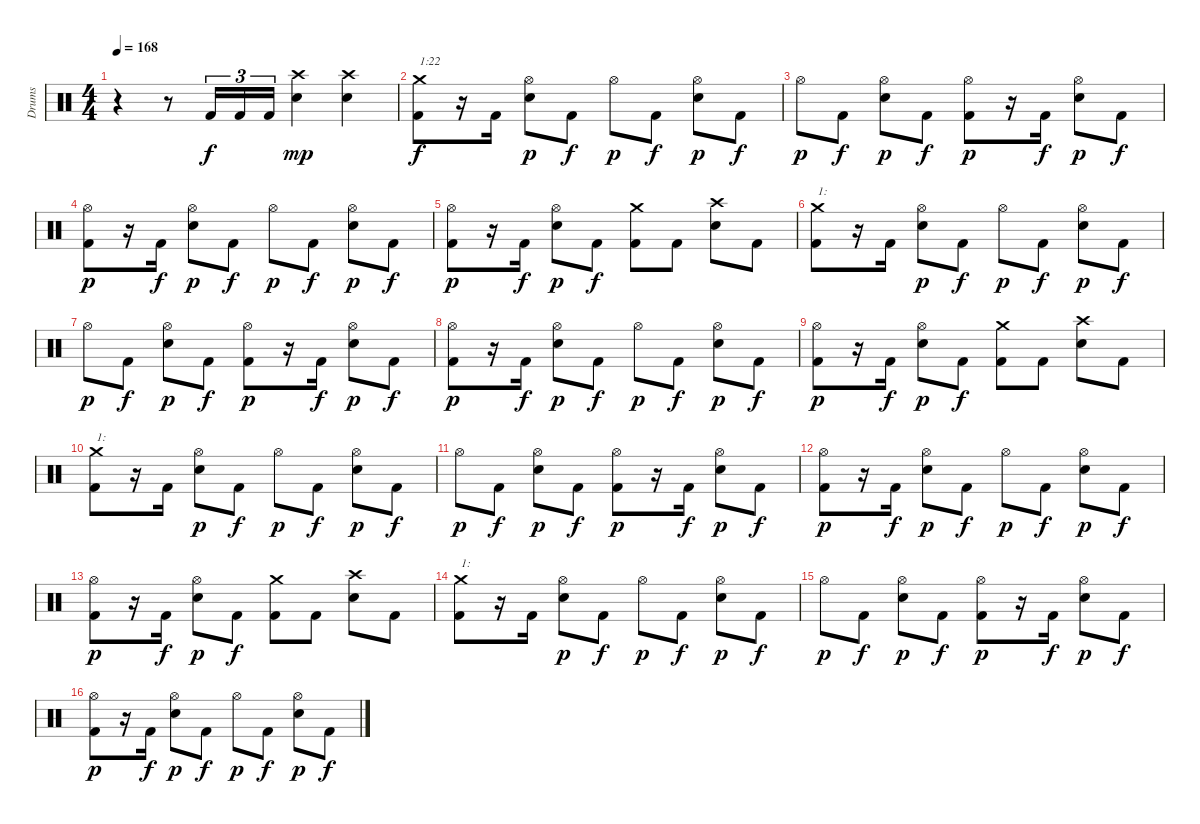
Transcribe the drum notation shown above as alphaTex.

\track ("Drums" "Drums") {instrument percussion}
\staff {score}
\articulation defaults
\ts (4 4)
\tempo 168
\clef neutral
\ks c
r.4{dy f} r.8 "Kick (hit) 2".16{tu (3 2)} "Kick (hit) 2".16{tu (3 2)} "Kick (hit) 2".16{tu (3 2)} ("Electric Snare (hit)" "Crash high (hit)").4{dy mp} ("Electric Snare (hit)" "Crash high (hit)").4 |
("Kick (hit) 2" "Crash medium (hit)").8{txt "1:22" dy f} r.16 "Kick (hit) 2".16 ("Electric Snare (hit)" "Hi-Hat (open)").8{dy p} "Kick (hit) 2".8{dy f} "Hi-Hat (open)".8{dy p} "Kick (hit) 2".8{dy f} ("Electric Snare (hit)" "Hi-Hat (open)").8{dy p} "Kick (hit) 2".8{dy f} |
"Hi-Hat (open)".8{dy p} "Kick (hit) 2".8{dy f} ("Electric Snare (hit)" "Hi-Hat (open)").8{dy p} "Kick (hit) 2".8{dy f} ("Kick (hit) 2" "Hi-Hat (open)").8{dy p} r.16 "Kick (hit) 2".16{dy f} ("Electric Snare (hit)" "Hi-Hat (open)").8{dy p} "Kick (hit) 2".8{dy f} |
("Kick (hit) 2" "Hi-Hat (open)").8{dy p} r.16 "Kick (hit) 2".16{dy f} ("Electric Snare (hit)" "Hi-Hat (open)").8{dy p} "Kick (hit) 2".8{dy f} "Hi-Hat (open)".8{dy p} "Kick (hit) 2".8{dy f} ("Electric Snare (hit)" "Hi-Hat (open)").8{dy p} "Kick (hit) 2".8{dy f} |
("Kick (hit) 2" "Hi-Hat (open)").8{dy p} r.16 "Kick (hit) 2".16{dy f} ("Electric Snare (hit)" "Hi-Hat (open)").8{dy p} "Kick (hit) 2".8{dy f} ("Kick (hit) 2" "Crash medium (hit)").8 "Kick (hit) 2".8 ("Electric Snare (hit)" "Crash high (hit)").8 "Kick (hit) 2".8 |
("Kick (hit) 2" "Crash medium (hit)").8{txt "1:"} r.16 "Kick (hit) 2".16 ("Electric Snare (hit)" "Hi-Hat (open)").8{dy p} "Kick (hit) 2".8{dy f} "Hi-Hat (open)".8{dy p} "Kick (hit) 2".8{dy f} ("Electric Snare (hit)" "Hi-Hat (open)").8{dy p} "Kick (hit) 2".8{dy f} |
"Hi-Hat (open)".8{dy p} "Kick (hit) 2".8{dy f} ("Electric Snare (hit)" "Hi-Hat (open)").8{dy p} "Kick (hit) 2".8{dy f} ("Kick (hit) 2" "Hi-Hat (open)").8{dy p} r.16 "Kick (hit) 2".16{dy f} ("Electric Snare (hit)" "Hi-Hat (open)").8{dy p} "Kick (hit) 2".8{dy f} |
("Kick (hit) 2" "Hi-Hat (open)").8{dy p} r.16 "Kick (hit) 2".16{dy f} ("Electric Snare (hit)" "Hi-Hat (open)").8{dy p} "Kick (hit) 2".8{dy f} "Hi-Hat (open)".8{dy p} "Kick (hit) 2".8{dy f} ("Electric Snare (hit)" "Hi-Hat (open)").8{dy p} "Kick (hit) 2".8{dy f} |
("Kick (hit) 2" "Hi-Hat (open)").8{dy p} r.16 "Kick (hit) 2".16{dy f} ("Electric Snare (hit)" "Hi-Hat (open)").8{dy p} "Kick (hit) 2".8{dy f} ("Kick (hit) 2" "Crash medium (hit)").8 "Kick (hit) 2".8 ("Electric Snare (hit)" "Crash high (hit)").8 "Kick (hit) 2".8 |
("Kick (hit) 2" "Crash medium (hit)").8{txt "1:"} r.16 "Kick (hit) 2".16 ("Electric Snare (hit)" "Hi-Hat (open)").8{dy p} "Kick (hit) 2".8{dy f} "Hi-Hat (open)".8{dy p} "Kick (hit) 2".8{dy f} ("Electric Snare (hit)" "Hi-Hat (open)").8{dy p} "Kick (hit) 2".8{dy f} |
"Hi-Hat (open)".8{dy p} "Kick (hit) 2".8{dy f} ("Electric Snare (hit)" "Hi-Hat (open)").8{dy p} "Kick (hit) 2".8{dy f} ("Kick (hit) 2" "Hi-Hat (open)").8{dy p} r.16 "Kick (hit) 2".16{dy f} ("Electric Snare (hit)" "Hi-Hat (open)").8{dy p} "Kick (hit) 2".8{dy f} |
("Kick (hit) 2" "Hi-Hat (open)").8{dy p} r.16 "Kick (hit) 2".16{dy f} ("Electric Snare (hit)" "Hi-Hat (open)").8{dy p} "Kick (hit) 2".8{dy f} "Hi-Hat (open)".8{dy p} "Kick (hit) 2".8{dy f} ("Electric Snare (hit)" "Hi-Hat (open)").8{dy p} "Kick (hit) 2".8{dy f} |
("Kick (hit) 2" "Hi-Hat (open)").8{dy p} r.16 "Kick (hit) 2".16{dy f} ("Electric Snare (hit)" "Hi-Hat (open)").8{dy p} "Kick (hit) 2".8{dy f} ("Kick (hit) 2" "Crash medium (hit)").8 "Kick (hit) 2".8 ("Electric Snare (hit)" "Crash high (hit)").8 "Kick (hit) 2".8 |
("Kick (hit) 2" "Crash medium (hit)").8{txt "1:"} r.16 "Kick (hit) 2".16 ("Electric Snare (hit)" "Hi-Hat (open)").8{dy p} "Kick (hit) 2".8{dy f} "Hi-Hat (open)".8{dy p} "Kick (hit) 2".8{dy f} ("Electric Snare (hit)" "Hi-Hat (open)").8{dy p} "Kick (hit) 2".8{dy f} |
"Hi-Hat (open)".8{dy p} "Kick (hit) 2".8{dy f} ("Electric Snare (hit)" "Hi-Hat (open)").8{dy p} "Kick (hit) 2".8{dy f} ("Kick (hit) 2" "Hi-Hat (open)").8{dy p} r.16 "Kick (hit) 2".16{dy f} ("Electric Snare (hit)" "Hi-Hat (open)").8{dy p} "Kick (hit) 2".8{dy f} |
("Kick (hit) 2" "Hi-Hat (open)").8{dy p} r.16 "Kick (hit) 2".16{dy f} ("Electric Snare (hit)" "Hi-Hat (open)").8{dy p} "Kick (hit) 2".8{dy f} "Hi-Hat (open)".8{dy p} "Kick (hit) 2".8{dy f} ("Electric Snare (hit)" "Hi-Hat (open)").8{dy p} "Kick (hit) 2".8{dy f}
